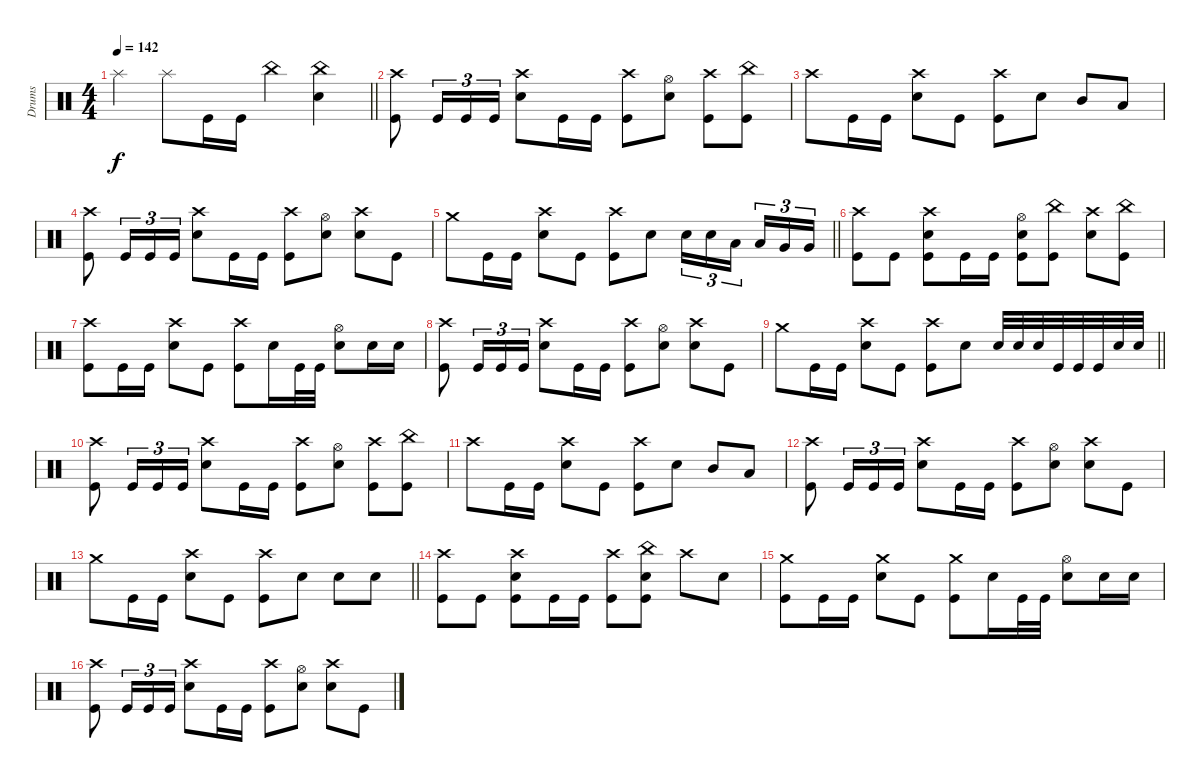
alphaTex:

\track ("Drums" "Drums") {instrument percussion}
\staff
\articulation defaults
\ts (4 4)
\tempo 142
\clef neutral
\barLineRight lightlight
\ks c "Splash (hit)".4{dy f} "Splash (hit)".8 "Kick (hit)".16 "Kick (hit)".16 "China (hit)".4
("China (hit)" "Electric Snare (hit)").4 |
\section ("" "")
("Crash high (hit)" "Kick (hit)").8 "Kick (hit)".16{tu (3 2)} "Kick (hit)".16{tu (3 2)} "Kick (hit)".16{tu (3 2)} ("Crash high (hit)" "Electric Snare (hit)").8 "Kick (hit)".16 "Kick (hit)".16 ("Crash high (hit)" "Kick (hit)").8 ("Hi-Hat (open)" "Electric Snare (hit)").8 ("Crash high (hit)" "Kick (hit)").8 ("China (hit)" "Kick (hit)").8 |
"Crash high (hit)".8 "Kick (hit)".16 "Kick (hit)".16 ("Crash high (hit)" "Electric Snare (hit)").8 "Kick (hit)".8 ("Crash high (hit)" "Kick (hit)").8 "Electric Snare (hit)".8 "Mid Tom (hit)".8 "Low Tom (hit)".8 |
("Crash high (hit)" "Kick (hit)").8 "Kick (hit)".16{tu (3 2)} "Kick (hit)".16{tu (3 2)} "Kick (hit)".16{tu (3 2)} ("Crash high (hit)" "Electric Snare (hit)").8 "Kick (hit)".16 "Kick (hit)".16 ("Crash high (hit)" "Kick (hit)").8 ("Hi-Hat (open)" "Electric Snare (hit)").8 ("Crash high (hit)" "Electric Snare (hit)").8 "Kick (hit)".8 |
\barLineRight lightlight "Crash medium (hit)".8 "Kick (hit)".16 "Kick (hit)".16
("Crash high (hit)" "Electric Snare (hit)").8 "Kick (hit)".8 ("Crash high (hit)" "Kick (hit)").8 "Electric Snare (hit)".8 "Electric Snare (hit)".16{tu (3 2)} "Electric Snare (hit)".16{tu (3 2)} "Low Tom (hit)".16{tu (3 2) beam splitsecondary} "Low Tom (hit)".16{tu (3 2)} "Very Low Tom (hit)".16{tu (3 2)} "Very Low Tom (hit)".16{tu (3 2)} |
("Crash high (hit)" "Kick (hit)").8 "Kick (hit)".8 ("Crash high (hit)" "Electric Snare (hit)" "Kick (hit)").8 "Kick (hit)".16 "Kick (hit)".16 ("Hi-Hat (open)" "Electric Snare (hit)" "Kick (hit)").8 ("China (hit)" "Kick (hit)").8 ("Crash high (hit)" "Electric Snare (hit)").8 ("China (hit)" "Kick (hit)").8 |
("Crash high (hit)" "Kick (hit)").8 "Kick (hit)".16 "Kick (hit)".16 ("Crash high (hit)" "Electric Snare (hit)").8 "Kick (hit)".8 ("Crash high (hit)" "Kick (hit)").8 "Electric Snare (hit)".16 "Kick (hit)".32 "Kick (hit)".32 ("Hi-Hat (open)" "Electric Snare (hit)").8 "Electric Snare (hit)".16 "Electric Snare (hit)".16 |
("Crash high (hit)" "Kick (hit)").8 "Kick (hit)".16{tu (3 2)} "Kick (hit)".16{tu (3 2)} "Kick (hit)".16{tu (3 2)} ("Crash high (hit)" "Electric Snare (hit)").8 "Kick (hit)".16 "Kick (hit)".16 ("Crash high (hit)" "Kick (hit)").8 ("Hi-Hat (open)" "Electric Snare (hit)").8 ("Crash high (hit)" "Electric Snare (hit)").8 "Kick (hit)".8 |
\barLineRight lightlight "Crash medium (hit)".8 "Kick (hit)".16 "Kick (hit)".16
("Crash high (hit)" "Electric Snare (hit)").8 "Kick (hit)".8 ("Crash high (hit)" "Kick (hit)").8 "Electric Snare (hit)".8 "Electric Snare (hit)".32 "Electric Snare (hit)".32 "Electric Snare (hit)".32 "Kick (hit)".32 "Kick (hit)".32 "Kick (hit)".32 "Electric Snare (hit)".32 "Electric Snare (hit)".32 |
("Crash high (hit)" "Kick (hit)").8 "Kick (hit)".16{tu (3 2)} "Kick (hit)".16{tu (3 2)} "Kick (hit)".16{tu (3 2)} ("Crash high (hit)" "Electric Snare (hit)").8 "Kick (hit)".16 "Kick (hit)".16 ("Crash high (hit)" "Kick (hit)").8 ("Hi-Hat (open)" "Electric Snare (hit)").8 ("Crash high (hit)" "Kick (hit)").8 ("China (hit)" "Kick (hit)").8 |
"Crash high (hit)".8 "Kick (hit)".16 "Kick (hit)".16 ("Crash high (hit)" "Electric Snare (hit)").8 "Kick (hit)".8 ("Crash high (hit)" "Kick (hit)").8 "Electric Snare (hit)".8 "Mid Tom (hit)".8 "Low Tom (hit)".8 |
("Crash high (hit)" "Kick (hit)").8 "Kick (hit)".16{tu (3 2)} "Kick (hit)".16{tu (3 2)} "Kick (hit)".16{tu (3 2)} ("Crash high (hit)" "Electric Snare (hit)").8 "Kick (hit)".16 "Kick (hit)".16 ("Crash high (hit)" "Kick (hit)").8 ("Hi-Hat (open)" "Electric Snare (hit)").8 ("Crash high (hit)" "Electric Snare (hit)").8 "Kick (hit)".8 |
\barLineRight lightlight "Crash medium (hit)".8 "Kick (hit)".16 "Kick (hit)".16
("Crash high (hit)" "Electric Snare (hit)").8 "Kick (hit)".8 ("Crash high (hit)" "Kick (hit)").8 "Electric Snare (hit)".8 "Electric Snare (hit)".8 "Electric Snare (hit)".8 |
("Crash high (hit)" "Kick (hit)").8 "Kick (hit)".8 ("Crash high (hit)" "Electric Snare (hit)" "Kick (hit)").8 "Kick (hit)".16 "Kick (hit)".16 ("Crash high (hit)" "Kick (hit)").8 ("China (hit)" "Electric Snare (hit)" "Kick (hit)").8 "Crash high (hit)".8 "Electric Snare (hit)".8 |
("Crash medium (hit)" "Kick (hit)").8 "Kick (hit)".16 "Kick (hit)".16 ("Crash medium (hit)" "Electric Snare (hit)").8 "Kick (hit)".8 ("Crash medium (hit)" "Kick (hit)").8 "Electric Snare (hit)".16 "Kick (hit)".32 "Kick (hit)".32 ("Hi-Hat (open)" "Electric Snare (hit)").8 "Electric Snare (hit)".16 "Electric Snare (hit)".16 |
("Crash high (hit)" "Kick (hit)").8 "Kick (hit)".16{tu (3 2)} "Kick (hit)".16{tu (3 2)} "Kick (hit)".16{tu (3 2)} ("Crash high (hit)" "Electric Snare (hit)").8 "Kick (hit)".16 "Kick (hit)".16 ("Crash high (hit)" "Kick (hit)").8 ("Hi-Hat (open)" "Electric Snare (hit)").8 ("Crash high (hit)" "Electric Snare (hit)").8 "Kick (hit)".8
